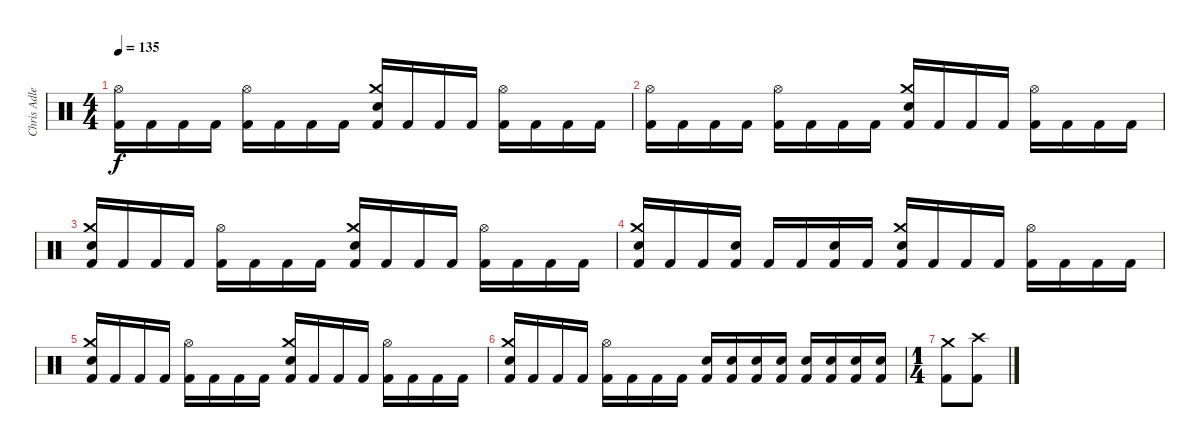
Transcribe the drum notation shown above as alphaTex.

\track ("Chris Adler" "Chris Adle") {instrument percussion}
\staff {score}
\articulation defaults
\ts (4 4)
\tempo 135
\clef neutral
\ks c
("Hi-Hat (open)" "Kick (hit) 2").16{dy f} "Kick (hit) 2".16 "Kick (hit) 2".16 "Kick (hit) 2".16 ("Hi-Hat (open)" "Kick (hit) 2").16 "Kick (hit) 2".16 "Kick (hit) 2".16 "Kick (hit) 2".16 ("Crash medium (hit)" "Snare (hit) 2" "Kick (hit) 2").16 "Kick (hit) 2".16 "Kick (hit) 2".16 "Kick (hit) 2".16 ("Hi-Hat (open)" "Kick (hit) 2").16 "Kick (hit) 2".16 "Kick (hit) 2".16 "Kick (hit) 2".16 |
("Hi-Hat (open)" "Kick (hit) 2").16 "Kick (hit) 2".16 "Kick (hit) 2".16 "Kick (hit) 2".16 ("Hi-Hat (open)" "Kick (hit) 2").16 "Kick (hit) 2".16 "Kick (hit) 2".16 "Kick (hit) 2".16 ("Crash medium (hit)" "Snare (hit) 2" "Kick (hit) 2").16 "Kick (hit) 2".16 "Kick (hit) 2".16 "Kick (hit) 2".16 ("Hi-Hat (open)" "Kick (hit) 2").16 "Kick (hit) 2".16 "Kick (hit) 2".16 "Kick (hit) 2".16 |
("Crash medium (hit)" "Snare (hit) 2" "Kick (hit) 2").16 "Kick (hit) 2".16 "Kick (hit) 2".16 "Kick (hit) 2".16 ("Hi-Hat (open)" "Kick (hit) 2").16 "Kick (hit) 2".16 "Kick (hit) 2".16 "Kick (hit) 2".16 ("Crash medium (hit)" "Snare (hit) 2" "Kick (hit) 2").16 "Kick (hit) 2".16 "Kick (hit) 2".16 "Kick (hit) 2".16 ("Hi-Hat (open)" "Kick (hit) 2").16 "Kick (hit) 2".16 "Kick (hit) 2".16 "Kick (hit) 2".16 |
("Crash medium (hit)" "Snare (hit) 2" "Kick (hit) 2").16 "Kick (hit) 2".16 "Kick (hit) 2".16 ("Snare (hit) 2" "Kick (hit) 2").16 "Kick (hit) 2".16 "Kick (hit) 2".16 ("Snare (hit) 2" "Kick (hit) 2").16 "Kick (hit) 2".16 ("Crash medium (hit)" "Snare (hit) 2" "Kick (hit) 2").16 "Kick (hit) 2".16 "Kick (hit) 2".16 "Kick (hit) 2".16 ("Hi-Hat (open)" "Kick (hit) 2").16 "Kick (hit) 2".16 "Kick (hit) 2".16 "Kick (hit) 2".16 |
("Crash medium (hit)" "Snare (hit) 2" "Kick (hit) 2").16 "Kick (hit) 2".16 "Kick (hit) 2".16 "Kick (hit) 2".16 ("Hi-Hat (open)" "Kick (hit) 2").16 "Kick (hit) 2".16 "Kick (hit) 2".16 "Kick (hit) 2".16 ("Crash medium (hit)" "Snare (hit) 2" "Kick (hit) 2").16 "Kick (hit) 2".16 "Kick (hit) 2".16 "Kick (hit) 2".16 ("Hi-Hat (open)" "Kick (hit) 2").16 "Kick (hit) 2".16 "Kick (hit) 2".16 "Kick (hit) 2".16 |
("Crash medium (hit)" "Snare (hit) 2" "Kick (hit) 2").16 "Kick (hit) 2".16 "Kick (hit) 2".16 "Kick (hit) 2".16 ("Hi-Hat (open)" "Kick (hit) 2").16 "Kick (hit) 2".16 "Kick (hit) 2".16 "Kick (hit) 2".16 ("Snare (hit) 2" "Kick (hit) 2").16 ("Snare (hit) 2" "Kick (hit) 2").16 ("Snare (hit) 2" "Kick (hit) 2").16 ("Snare (hit) 2" "Kick (hit) 2").16 ("Snare (hit) 2" "Kick (hit) 2").16 ("Snare (hit) 2" "Kick (hit) 2").16 ("Snare (hit) 2" "Kick (hit) 2").16 ("Snare (hit) 2" "Kick (hit) 2").16 |
\ts (1 4)
("Crash medium (hit)" "Kick (hit) 2").8 ("Crash high (hit)" "Kick (hit) 2").8
